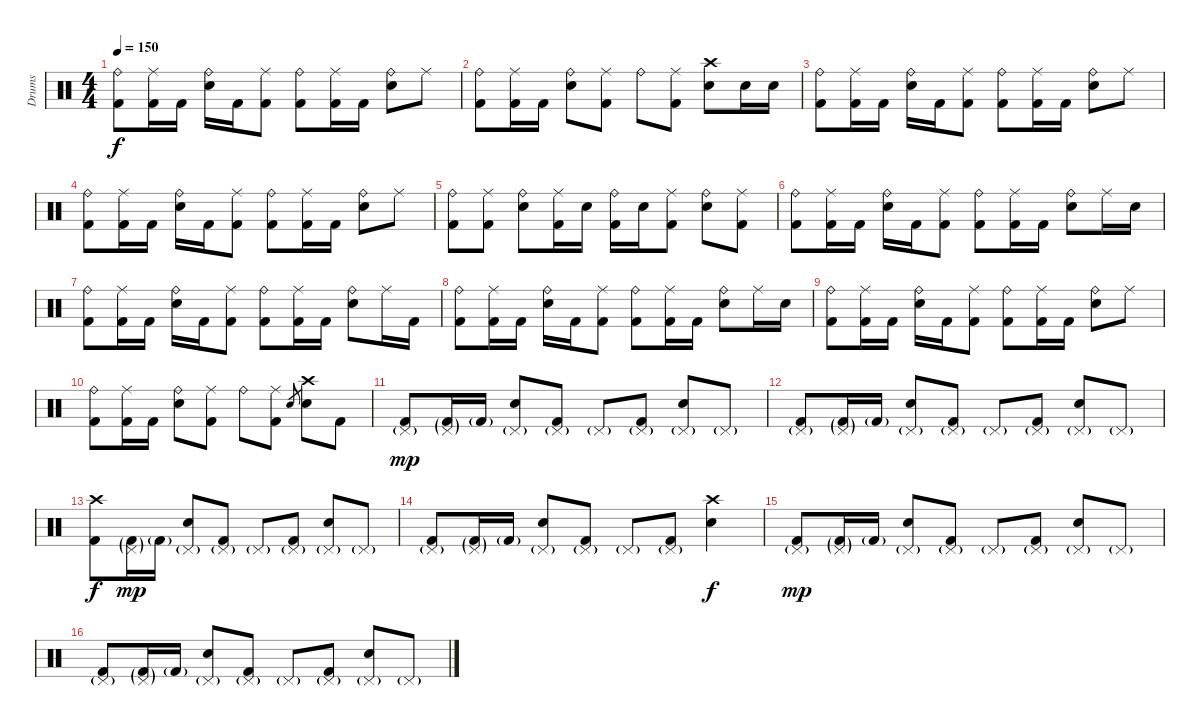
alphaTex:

\track ("Drums" "Drums") {instrument percussion}
\staff {score}
\articulation defaults
\ts (4 4)
\tempo 150
\clef neutral
\ks c
("Ride (bell)" "Kick (hit) 2").8{dy f} ("Ride (middle)" "Kick (hit) 2").16 "Kick (hit) 2".16 ("Ride (bell)" "Electric Snare (hit)").16 "Kick (hit) 2".16 ("Ride (middle)" "Kick (hit) 2").8 ("Ride (bell)" "Kick (hit) 2").8 ("Ride (middle)" "Kick (hit) 2").16 "Kick (hit) 2".16 ("Ride (bell)" "Electric Snare (hit)").8 "Ride (middle)".8 |
("Ride (bell)" "Kick (hit) 2").8 ("Ride (middle)" "Kick (hit) 2").16 "Kick (hit) 2".16 ("Ride (bell)" "Electric Snare (hit)").8 ("Ride (middle)" "Kick (hit) 2").8 "Ride (bell)".8 ("Ride (middle)" "Kick (hit) 2").8 ("Crash high (hit)" "Electric Snare (hit)").8 "Electric Snare (hit)".16 "Electric Snare (hit)".16 |
("Ride (bell)" "Kick (hit) 2").8 ("Ride (middle)" "Kick (hit) 2").16 "Kick (hit) 2".16 ("Ride (bell)" "Electric Snare (hit)").16 "Kick (hit) 2".16 ("Ride (middle)" "Kick (hit) 2").8 ("Ride (bell)" "Kick (hit) 2").8 ("Ride (middle)" "Kick (hit) 2").16 "Kick (hit) 2".16 ("Ride (bell)" "Electric Snare (hit)").8 "Ride (middle)".8 |
("Ride (bell)" "Kick (hit) 2").8 ("Ride (middle)" "Kick (hit) 2").16 "Kick (hit) 2".16 ("Ride (bell)" "Electric Snare (hit)").16 "Kick (hit) 2".16 ("Ride (middle)" "Kick (hit) 2").8 ("Ride (bell)" "Kick (hit) 2").8 ("Ride (middle)" "Kick (hit) 2").16 "Kick (hit) 2".16 ("Ride (bell)" "Electric Snare (hit)").8 "Ride (middle)".8 |
("Ride (bell)" "Kick (hit) 2").8 ("Ride (middle)" "Kick (hit) 2").8 ("Ride (bell)" "Electric Snare (hit)").8 ("Ride (middle)" "Kick (hit) 2").16 "Electric Snare (hit)".16 ("Ride (bell)" "Kick (hit) 2").16 "Electric Snare (hit)".16 ("Ride (middle)" "Kick (hit) 2").8 ("Ride (bell)" "Electric Snare (hit)").8 ("Ride (middle)" "Kick (hit) 2").8 |
("Ride (bell)" "Kick (hit) 2").8 ("Ride (middle)" "Kick (hit) 2").16 "Kick (hit) 2".16 ("Ride (bell)" "Electric Snare (hit)").16 "Kick (hit) 2".16 ("Ride (middle)" "Kick (hit) 2").8 ("Ride (bell)" "Kick (hit) 2").8 ("Ride (middle)" "Kick (hit) 2").16 "Kick (hit) 2".16 ("Ride (bell)" "Electric Snare (hit)").8 "Ride (middle)".16 "Electric Snare (hit)".16 |
("Ride (bell)" "Kick (hit) 2").8 ("Ride (middle)" "Kick (hit) 2").16 "Kick (hit) 2".16 ("Ride (bell)" "Electric Snare (hit)").16 "Kick (hit) 2".16 ("Ride (middle)" "Kick (hit) 2").8 ("Ride (bell)" "Kick (hit) 2").8 ("Ride (middle)" "Kick (hit) 2").16 "Kick (hit) 2".16 ("Ride (bell)" "Electric Snare (hit)").8 "Ride (middle)".16 "Kick (hit) 2".16 |
("Ride (bell)" "Kick (hit) 2").8 ("Ride (middle)" "Kick (hit) 2").16 "Kick (hit) 2".16 ("Ride (bell)" "Electric Snare (hit)").16 "Kick (hit) 2".16 ("Ride (middle)" "Kick (hit) 2").8 ("Ride (bell)" "Kick (hit) 2").8 ("Ride (middle)" "Kick (hit) 2").16 "Kick (hit) 2".16 ("Ride (bell)" "Electric Snare (hit)").8 "Ride (middle)".16 "Electric Snare (hit)".16 |
("Ride (bell)" "Kick (hit) 2").8 ("Ride (middle)" "Kick (hit) 2").16 "Kick (hit) 2".16 ("Ride (bell)" "Electric Snare (hit)").16 "Kick (hit) 2".16 ("Ride (middle)" "Kick (hit) 2").8 ("Ride (bell)" "Kick (hit) 2").8 ("Ride (middle)" "Kick (hit) 2").16 "Kick (hit) 2".16 ("Ride (bell)" "Electric Snare (hit)").8 "Ride (middle)".8 |
("Ride (bell)" "Kick (hit) 2").8 ("Ride (middle)" "Kick (hit) 2").16 "Kick (hit) 2".16 ("Ride (bell)" "Electric Snare (hit)").8 ("Ride (middle)" "Kick (hit) 2").8 "Ride (bell)".8 ("Ride (middle)" "Kick (hit) 2").8 "Electric Snare (hit)".8{gr} ("Crash high (hit)" "Electric Snare (hit)").8 "Kick (hit) 2".8 |
("Pedal Hi-Hat (hit)"{g} "Kick (hit) 2").8{dy mp} ("Pedal Hi-Hat (hit)"{g} "Kick (hit) 2"{g}).16 "Kick (hit) 2"{g}.16 ("Pedal Hi-Hat (hit)"{g} "Electric Snare (hit)").8 ("Pedal Hi-Hat (hit)"{g} "Kick (hit) 2").8 "Pedal Hi-Hat (hit)"{g}.8 ("Pedal Hi-Hat (hit)"{g} "Kick (hit) 2").8 ("Pedal Hi-Hat (hit)"{g} "Electric Snare (hit)").8 "Pedal Hi-Hat (hit)"{g}.8 |
("Pedal Hi-Hat (hit)"{g} "Kick (hit) 2").8 ("Pedal Hi-Hat (hit)"{g} "Kick (hit) 2"{g}).16 "Kick (hit) 2"{g}.16 ("Pedal Hi-Hat (hit)"{g} "Electric Snare (hit)").8 ("Pedal Hi-Hat (hit)"{g} "Kick (hit) 2").8 "Pedal Hi-Hat (hit)"{g}.8 ("Pedal Hi-Hat (hit)"{g} "Kick (hit) 2").8 ("Pedal Hi-Hat (hit)"{g} "Electric Snare (hit)").8 "Pedal Hi-Hat (hit)"{g}.8 |
("Crash high (hit)" "Kick (hit) 2").8{dy f} ("Pedal Hi-Hat (hit)"{g} "Kick (hit) 2"{g}).16{dy mp} "Kick (hit) 2"{g}.16 ("Pedal Hi-Hat (hit)"{g} "Electric Snare (hit)").8 ("Pedal Hi-Hat (hit)"{g} "Kick (hit) 2").8 "Pedal Hi-Hat (hit)"{g}.8 ("Pedal Hi-Hat (hit)"{g} "Kick (hit) 2").8 ("Pedal Hi-Hat (hit)"{g} "Electric Snare (hit)").8 "Pedal Hi-Hat (hit)"{g}.8 |
("Pedal Hi-Hat (hit)"{g} "Kick (hit) 2").8 ("Pedal Hi-Hat (hit)"{g} "Kick (hit) 2"{g}).16 "Kick (hit) 2"{g}.16 ("Pedal Hi-Hat (hit)"{g} "Electric Snare (hit)").8 ("Pedal Hi-Hat (hit)"{g} "Kick (hit) 2").8 "Pedal Hi-Hat (hit)"{g}.8 ("Pedal Hi-Hat (hit)"{g} "Kick (hit) 2").8 ("Crash high (hit)" "Electric Snare (hit)").4{dy f} |
("Pedal Hi-Hat (hit)"{g} "Kick (hit) 2").8{dy mp} ("Pedal Hi-Hat (hit)"{g} "Kick (hit) 2"{g}).16 "Kick (hit) 2"{g}.16 ("Pedal Hi-Hat (hit)"{g} "Electric Snare (hit)").8 ("Pedal Hi-Hat (hit)"{g} "Kick (hit) 2").8 "Pedal Hi-Hat (hit)"{g}.8 ("Pedal Hi-Hat (hit)"{g} "Kick (hit) 2").8 ("Pedal Hi-Hat (hit)"{g} "Electric Snare (hit)").8 "Pedal Hi-Hat (hit)"{g}.8 |
("Pedal Hi-Hat (hit)"{g} "Kick (hit) 2").8 ("Pedal Hi-Hat (hit)"{g} "Kick (hit) 2"{g}).16 "Kick (hit) 2"{g}.16 ("Pedal Hi-Hat (hit)"{g} "Electric Snare (hit)").8 ("Pedal Hi-Hat (hit)"{g} "Kick (hit) 2").8 "Pedal Hi-Hat (hit)"{g}.8 ("Pedal Hi-Hat (hit)"{g} "Kick (hit) 2").8 ("Pedal Hi-Hat (hit)"{g} "Electric Snare (hit)").8 "Pedal Hi-Hat (hit)"{g}.8
